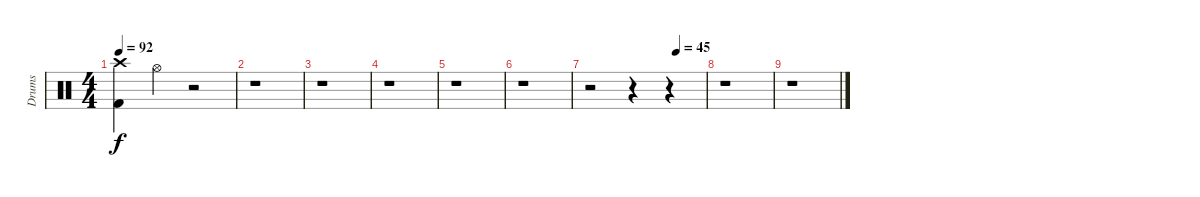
\track ("Drums" "Drums") {instrument percussion}
\staff {score}
\articulation defaults
\ts (4 4)
\tempo 92
\clef neutral
\ks c
("Crash high (hit)" "Kick (hit) 2").4{dy f} "Hi-Hat (open)".4 r.2 |
r.1 |
r.1 |
r.1 |
r.1 |
r.1 |
\tempo (45 0.75)
r.2 r.4 r.4 |
r.1 |
r.1
